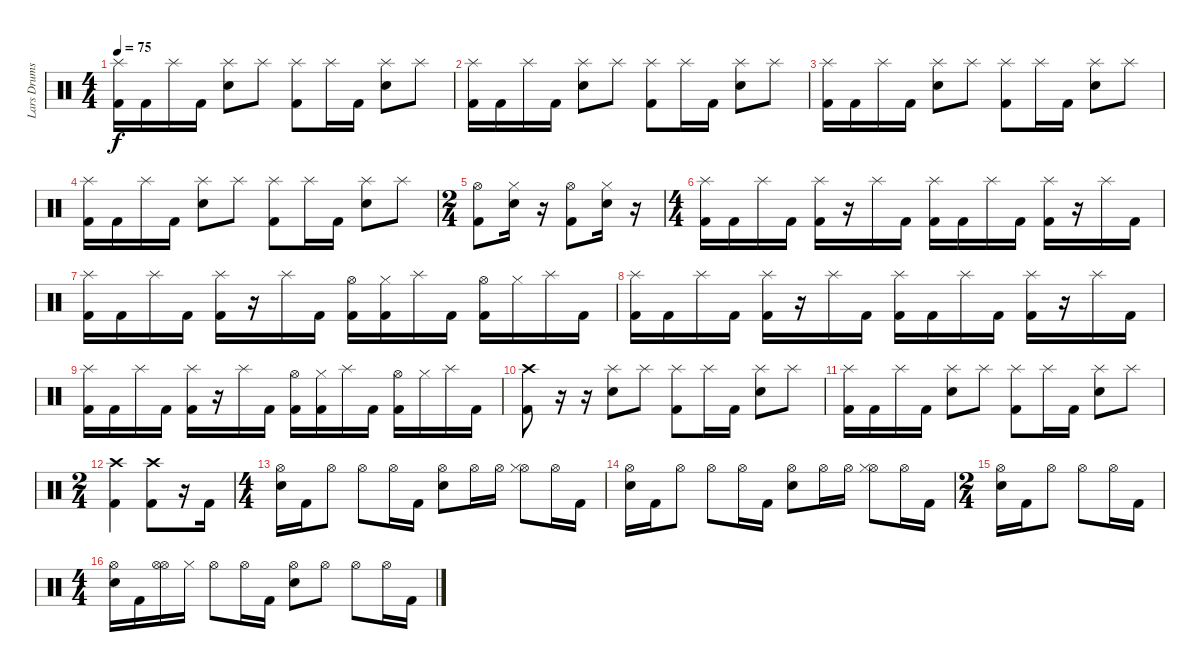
\track ("Lars Drums" "Lars Drums") {instrument percussion}
\staff {score}
\articulation defaults
\ts (4 4)
\tempo 75
\clef neutral
\ks c
("Splash (hit)" "Kick (hit) 2").16{dy f} "Kick (hit) 2".16 "Splash (hit)".16 "Kick (hit) 2".16 ("Splash (hit)" "Snare (hit) 2").8 "Splash (hit)".8 ("Splash (hit)" "Kick (hit) 2").8 "Splash (hit)".16 "Kick (hit) 2".16 ("Splash (hit)" "Snare (hit) 2").8 "Splash (hit)".8 |
("Splash (hit)" "Kick (hit) 2").16 "Kick (hit) 2".16 "Splash (hit)".16 "Kick (hit) 2".16 ("Splash (hit)" "Snare (hit) 2").8 "Splash (hit)".8 ("Splash (hit)" "Kick (hit) 2").8 "Splash (hit)".16 "Kick (hit) 2".16 ("Splash (hit)" "Snare (hit) 2").8 "Splash (hit)".8 |
("Splash (hit)" "Kick (hit) 2").16 "Kick (hit) 2".16 "Splash (hit)".16 "Kick (hit) 2".16 ("Splash (hit)" "Snare (hit) 2").8 "Splash (hit)".8 ("Splash (hit)" "Kick (hit) 2").8 "Splash (hit)".16 "Kick (hit) 2".16 ("Splash (hit)" "Snare (hit) 2").8 "Splash (hit)".8 |
("Splash (hit)" "Kick (hit) 2").16 "Kick (hit) 2".16 "Splash (hit)".16 "Kick (hit) 2".16 ("Splash (hit)" "Snare (hit) 2").8 "Splash (hit)".8 ("Splash (hit)" "Kick (hit) 2").8 "Splash (hit)".16 "Kick (hit) 2".16 ("Splash (hit)" "Snare (hit) 2").8 "Splash (hit)".8 |
\ts (2 4)
("Hi-Hat (open)" "Kick (hit) 2").8 ("Hi-Hat (closed)" "Snare (hit) 2").16 r.16 ("Hi-Hat (open)" "Kick (hit) 2").8 ("Hi-Hat (closed)" "Snare (hit) 2").16 r.16 |
\ts (4 4)
("Splash (hit)" "Kick (hit) 2").16 "Kick (hit) 2".16 "Splash (hit)".16 "Kick (hit) 2".16 ("Splash (hit)" "Kick (hit) 2").16 r.16 "Splash (hit)".16 "Kick (hit) 2".16 ("Splash (hit)" "Kick (hit) 2").16 "Kick (hit) 2".16 "Splash (hit)".16 "Kick (hit) 2".16 ("Splash (hit)" "Kick (hit) 2").16 r.16 "Splash (hit)".16 "Kick (hit) 2".16 |
("Splash (hit)" "Kick (hit) 2").16 "Kick (hit) 2".16 "Splash (hit)".16 "Kick (hit) 2".16 ("Splash (hit)" "Kick (hit) 2").16 r.16 "Splash (hit)".16 "Kick (hit) 2".16 ("Hi-Hat (open)" "Kick (hit) 2").16 ("Hi-Hat (closed)" "Kick (hit) 2").16 "Splash (hit)".16 "Kick (hit) 2".16 ("Hi-Hat (open)" "Kick (hit) 2").16 "Hi-Hat (closed)".16 "Splash (hit)".16 "Kick (hit) 2".16 |
("Splash (hit)" "Kick (hit) 2").16 "Kick (hit) 2".16 "Splash (hit)".16 "Kick (hit) 2".16 ("Splash (hit)" "Kick (hit) 2").16 r.16 "Splash (hit)".16 "Kick (hit) 2".16 ("Splash (hit)" "Kick (hit) 2").16 "Kick (hit) 2".16 "Splash (hit)".16 "Kick (hit) 2".16 ("Splash (hit)" "Kick (hit) 2").16 r.16 "Splash (hit)".16 "Kick (hit) 2".16 |
("Splash (hit)" "Kick (hit) 2").16 "Kick (hit) 2".16 "Splash (hit)".16 "Kick (hit) 2".16 ("Splash (hit)" "Kick (hit) 2").16 r.16 "Splash (hit)".16 "Kick (hit) 2".16 ("Hi-Hat (open)" "Kick (hit) 2").16 ("Hi-Hat (closed)" "Kick (hit) 2").16 "Splash (hit)".16 "Kick (hit) 2".16 ("Hi-Hat (open)" "Kick (hit) 2").16 "Hi-Hat (closed)".16 "Splash (hit)".16 "Kick (hit) 2".16 |
("Crash high (hit)" "Kick (hit) 2").8 r.16 r.16 ("Splash (hit)" "Snare (hit) 2").8 "Splash (hit)".8 ("Splash (hit)" "Kick (hit) 2").8 "Splash (hit)".16 "Kick (hit) 2".16 ("Splash (hit)" "Snare (hit) 2").8 "Splash (hit)".8 |
("Splash (hit)" "Kick (hit) 2").16 "Kick (hit) 2".16 "Splash (hit)".16 "Kick (hit) 2".16 ("Splash (hit)" "Snare (hit) 2").8 "Splash (hit)".8 ("Splash (hit)" "Kick (hit) 2").8 "Splash (hit)".16 "Kick (hit) 2".16 ("Splash (hit)" "Snare (hit) 2").8 "Splash (hit)".8 |
\ts (2 4)
("Crash high (hit)" "Kick (hit) 2").4 ("Crash high (hit)" "Kick (hit) 2").8 r.16 "Kick (hit) 2".16 |
\ts (4 4)
("Hi-Hat (open)" "Snare (hit) 2").16 "Kick (hit) 2".16 "Hi-Hat (open)".8 "Hi-Hat (open)".8 "Hi-Hat (open)".16 "Kick (hit) 2".16 ("Hi-Hat (open)" "Snare (hit) 2").8 "Hi-Hat (open)".16 "Hi-Hat (open)".16 ("Hi-Hat (open)" "Hi-Hat (closed)").8 "Hi-Hat (open)".16 "Kick (hit) 2".16 |
("Hi-Hat (open)" "Snare (hit) 2").16 "Kick (hit) 2".16 "Hi-Hat (open)".8 "Hi-Hat (open)".8 "Hi-Hat (open)".16 "Kick (hit) 2".16 ("Hi-Hat (open)" "Snare (hit) 2").8 "Hi-Hat (open)".16 "Hi-Hat (open)".16 ("Hi-Hat (open)" "Hi-Hat (closed)").8 "Hi-Hat (open)".16 "Kick (hit) 2".16 |
\ts (2 4)
("Hi-Hat (open)" "Snare (hit) 2").16 "Kick (hit) 2".16 "Hi-Hat (open)".8 "Hi-Hat (open)".8 "Hi-Hat (open)".16 "Kick (hit) 2".16 |
\ts (4 4)
("Hi-Hat (open)" "Snare (hit) 2").16 "Kick (hit) 2".16 ("Hi-Hat (open)" "Hi-Hat (open)").16 "Hi-Hat (closed)".16 "Hi-Hat (open)".8 "Hi-Hat (open)".16 "Kick (hit) 2".16 ("Hi-Hat (open)" "Snare (hit) 2").8 "Hi-Hat (open)".8 "Hi-Hat (open)".8 "Hi-Hat (open)".16 "Kick (hit) 2".16
